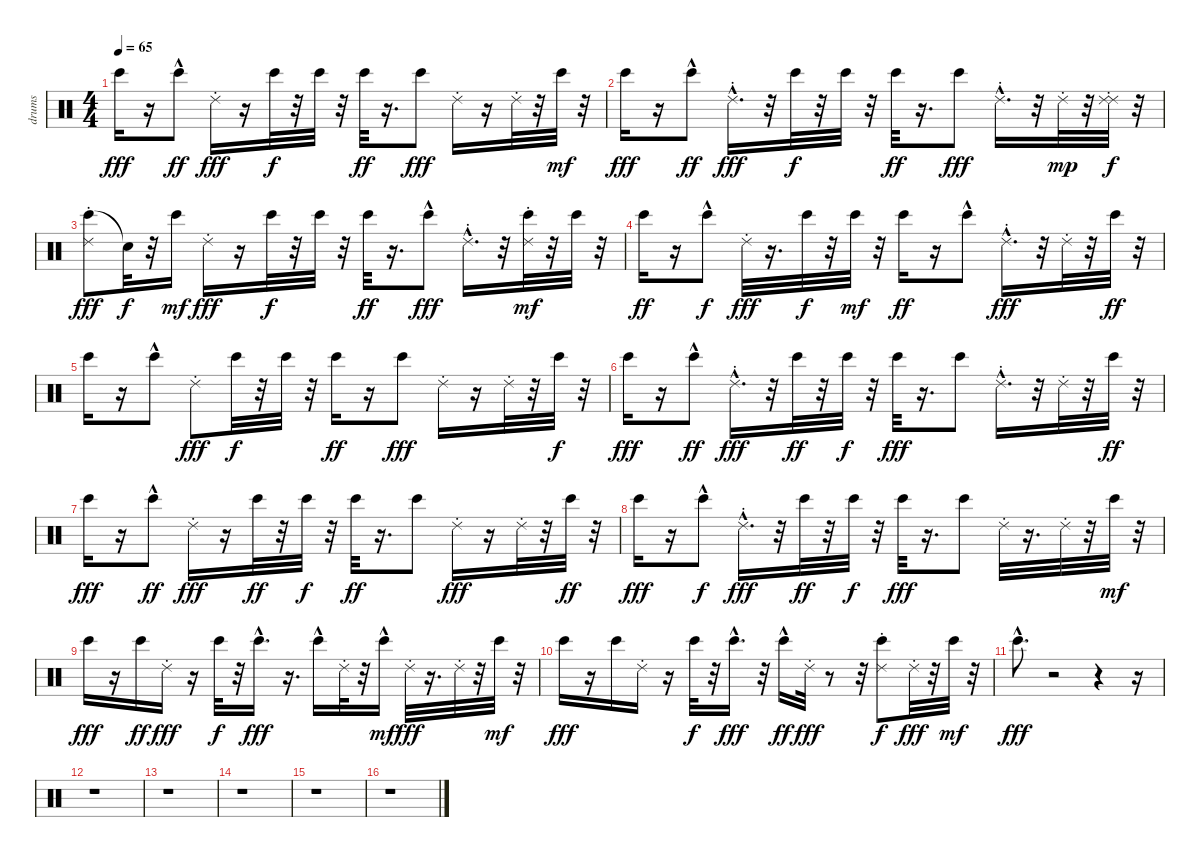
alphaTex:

\track ("drums" "drums") {instrument percussion}
\staff {score}
\articulation defaults
\ts (4 4)
\tempo 65
\clef neutral
\ks c "Bongo High (hit)".16{dy fff}
r.16 "Bongo High (hit)"{hac}.8{dy ff} "Ride (choke) 2".16{dy fff} r.16 "Bongo High (hit)".32{dy f} r.32 "Bongo High (hit)".32 r.32 "Bongo High (hit)".32{dy ff} r.16{d} "Bongo High (hit)".8{dy fff} "Ride (choke) 2".16 r.16 "Ride (choke) 2".32 r.32 "Bongo High (hit)".32{dy mf} r.32 |
"Bongo High (hit)".16{dy fff} r.16 "Bongo High (hit)"{hac}.8{dy ff} "Ride (choke) 2"{hac}.16{d dy fff} r.32 "Bongo High (hit)".32{dy f} r.32 "Bongo High (hit)".32 r.32 "Bongo High (hit)".32{dy ff} r.16{d} "Bongo High (hit)".8{dy fff} "Ride (choke) 2"{hac}.16{d} r.32 "Ride (choke) 2".32{dy mp} r.32 ("Ride (choke) 2" "Ride (choke) 2").32{dy f} r.32 |
("Bongo High (hit)" "Ride (choke) 2").8{dy fff} "Snare (hit)"{t}.32{dy f} r.32 "Bongo High (hit)".16{dy mf} "Ride (choke) 2".16{dy fff} r.16 "Bongo High (hit)".32{dy f} r.32 "Bongo High (hit)".32 r.32 "Bongo High (hit)".32{dy ff} r.16{d} "Bongo High (hit)"{hac}.8{dy fff} "Ride (choke) 2"{hac}.16{d} r.32 ("Bongo High (hit)" "Ride (choke) 2").32{dy mf} r.32 "Bongo High (hit)".32 r.32 |
"Bongo High (hit)".16{dy ff} r.16 "Bongo High (hit)"{hac}.8{dy f} "Ride (choke) 2".32{dy fff} r.16{d} "Bongo High (hit)".32{dy f} r.32 "Bongo High (hit)".32{dy mf} r.32 "Bongo High (hit)".16{dy ff} r.16 "Bongo High (hit)"{hac}.8 "Ride (choke) 2"{hac}.16{d dy fff} r.32 "Ride (choke) 2".32 r.32 "Bongo High (hit)".32{dy ff} r.32 |
"Bongo High (hit)".16 r.16 "Bongo High (hit)"{hac}.8 "Ride (choke) 2".8{dy fff} "Bongo High (hit)".32{dy f} r.32 "Bongo High (hit)".32 r.32 "Bongo High (hit)".16{dy ff} r.16 "Bongo High (hit)".8{dy fff} "Ride (choke) 2".16 r.16 "Ride (choke) 2".32 r.32 "Bongo High (hit)".32{dy f} r.32 |
"Bongo High (hit)".16{dy fff} r.16 "Bongo High (hit)"{hac}.8{dy ff} "Ride (choke) 2"{hac}.16{d dy fff} r.32 "Bongo High (hit)".32{dy ff} r.32 "Bongo High (hit)".32{dy f} r.32 "Bongo High (hit)".32{dy fff} r.16{d} "Bongo High (hit)".8 "Ride (choke) 2"{hac}.16{d} r.32 "Ride (choke) 2".32 r.32 "Bongo High (hit)".32{dy ff} r.32 |
"Bongo High (hit)".16{dy fff} r.16 "Bongo High (hit)"{hac}.8{dy ff} "Ride (choke) 2".16{dy fff} r.16 "Bongo High (hit)".32{dy ff} r.32 "Bongo High (hit)".32{dy f} r.32 "Bongo High (hit)".32{dy ff} r.16{d} "Bongo High (hit)".8 "Ride (choke) 2".16{dy fff} r.16 "Ride (choke) 2".32 r.32 "Bongo High (hit)".32{dy ff} r.32 |
"Bongo High (hit)".16{dy fff} r.16 "Bongo High (hit)"{hac}.8{dy f} "Ride (choke) 2"{hac}.16{d dy fff} r.32 "Bongo High (hit)".32{dy ff} r.32 "Bongo High (hit)".32{dy f} r.32 "Bongo High (hit)".32{dy fff} r.16{d} "Bongo High (hit)".8 "Ride (choke) 2".32 r.16{d} "Ride (choke) 2".32 r.32 "Bongo High (hit)".32{dy mf} r.32 |
"Bongo High (hit)".16{dy fff} r.16 "Bongo High (hit)".16{dy ff} "Ride (choke) 2".16{dy fff} r.16 "Bongo High (hit)".32{dy f} r.32 "Bongo High (hit)"{hac}.16{d dy fff} r.16{d} "Bongo High (hit)"{hac}.16 "Ride (choke) 2".32 r.32 "Bongo High (hit)"{hac}.16{dy mf} "Ride (choke) 2".32{dy fff} r.16{d} "Ride (choke) 2".32 r.32 "Bongo High (hit)".32{dy mf} r.32 |
"Bongo High (hit)".16{dy fff} r.16 "Bongo High (hit)".16 "Ride (choke) 2".16 r.16 "Bongo High (hit)".32{dy f} r.32 "Bongo High (hit)"{hac}.16{d dy fff} r.32 "Bongo High (hit)"{hac}.16{dy ff} "Ride (choke) 2".32{dy fff} r.8 r.32 ("Ride (choke) 2" "Bongo High (hit)").8{dy f} "Ride (choke) 2".32{dy fff} r.32 "Bongo High (hit)".32{dy mf} r.32 |
"Bongo High (hit)"{hac}.8{d dy fff} r.2 r.4 r.16 |
r.1 |
r.1 |
r.1 |
r.1 |
r.1
